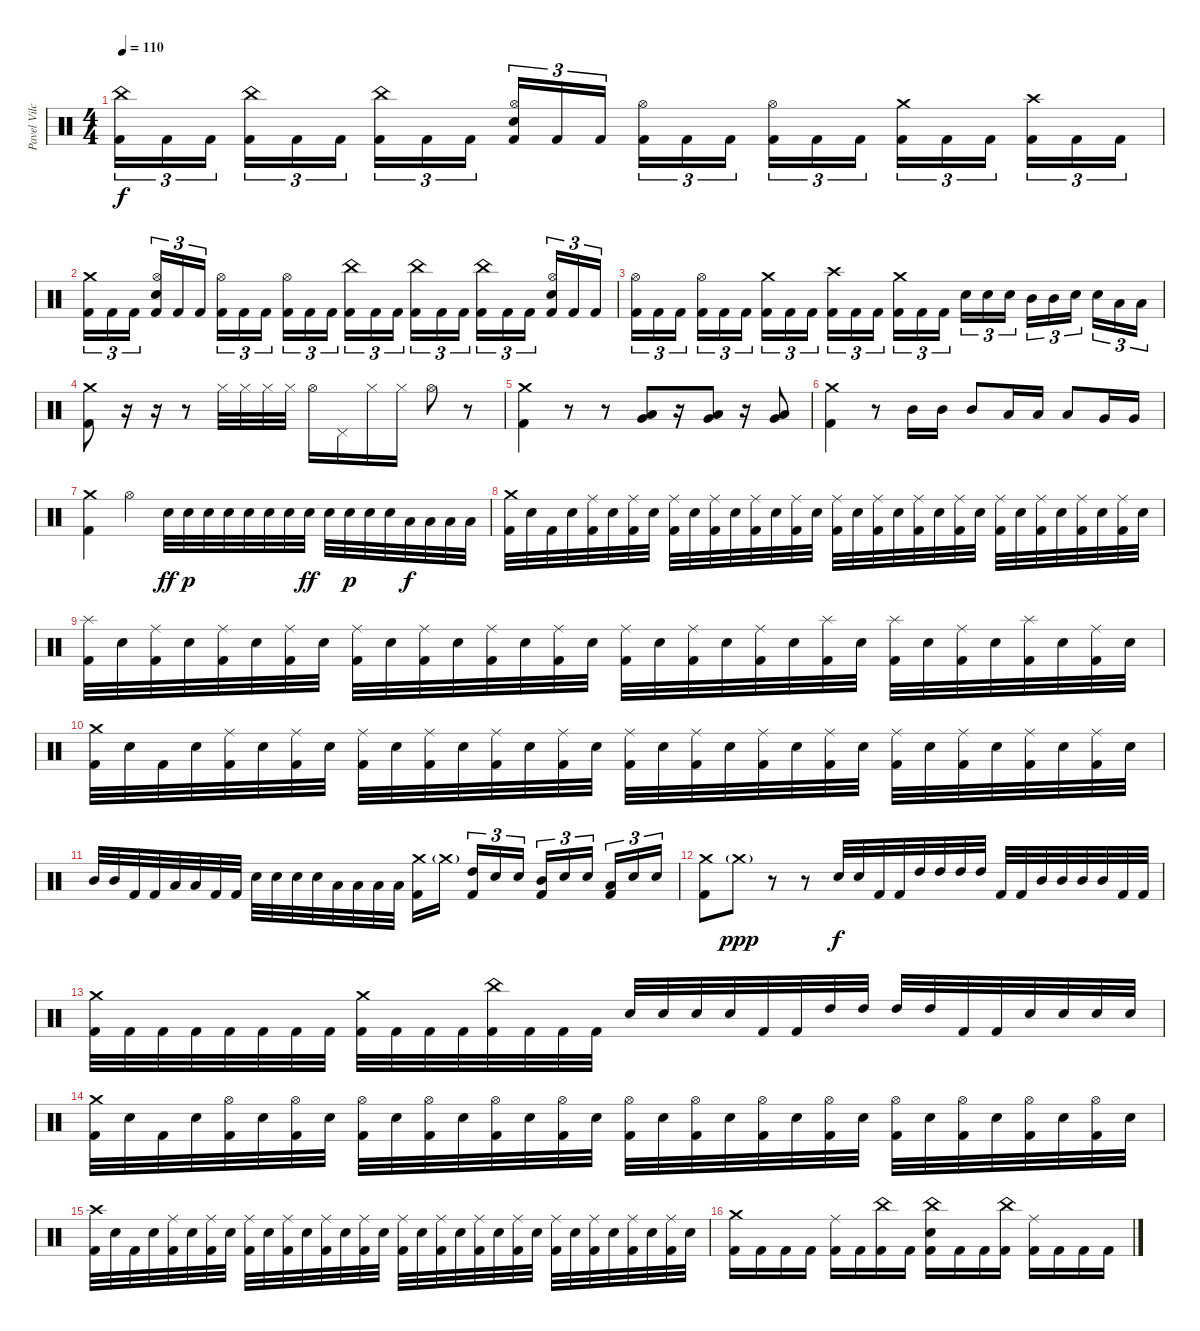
\track ("Pavel Vilchytski" "Pavel Vilc") {instrument percussion}
\staff {score}
\articulation defaults
\ts (4 4)
\tempo 110
\clef neutral
\ks c
("China (hit)" "Kick (hit) 2").16{tu (3 2) dy f} "Kick (hit) 2".16{tu (3 2)} "Kick (hit) 2".16{tu (3 2) beam splitsecondary} ("China (hit)" "Kick (hit) 2").16{tu (3 2)} "Kick (hit) 2".16{tu (3 2)} "Kick (hit) 2".16{tu (3 2)} ("China (hit)" "Kick (hit) 2").16{tu (3 2)} "Kick (hit) 2".16{tu (3 2)} "Kick (hit) 2".16{tu (3 2) beam splitsecondary} ("Hi-Hat (open)" "Electric Snare (hit)" "Kick (hit) 2").16{tu (3 2)} "Kick (hit) 2".16{tu (3 2)} "Kick (hit) 2".16{tu (3 2)} ("Hi-Hat (open)" "Kick (hit) 2").16{tu (3 2)} "Kick (hit) 2".16{tu (3 2)} "Kick (hit) 2".16{tu (3 2) beam splitsecondary} ("Hi-Hat (open)" "Kick (hit) 2").16{tu (3 2)} "Kick (hit) 2".16{tu (3 2)} "Kick (hit) 2".16{tu (3 2)} ("Crash medium (hit)" "Kick (hit) 2").16{tu (3 2)} "Kick (hit) 2".16{tu (3 2)} "Kick (hit) 2".16{tu (3 2) beam splitsecondary} ("Crash high (hit)" "Kick (hit) 2").16{tu (3 2)} "Kick (hit) 2".16{tu (3 2)} "Kick (hit) 2".16{tu (3 2)} |
("Crash medium (hit)" "Kick (hit) 2").16{tu (3 2)} "Kick (hit) 2".16{tu (3 2)} "Kick (hit) 2".16{tu (3 2) beam splitsecondary} ("Hi-Hat (open)" "Electric Snare (hit)" "Kick (hit) 2").16{tu (3 2)} "Kick (hit) 2".16{tu (3 2)} "Kick (hit) 2".16{tu (3 2)} ("Hi-Hat (open)" "Kick (hit) 2").16{tu (3 2)} "Kick (hit) 2".16{tu (3 2)} "Kick (hit) 2".16{tu (3 2) beam splitsecondary} ("Hi-Hat (open)" "Kick (hit) 2").16{tu (3 2)} "Kick (hit) 2".16{tu (3 2)} "Kick (hit) 2".16{tu (3 2)} ("China (hit)" "Kick (hit) 2").16{tu (3 2)} "Kick (hit) 2".16{tu (3 2)} "Kick (hit) 2".16{tu (3 2) beam splitsecondary} ("China (hit)" "Kick (hit) 2").16{tu (3 2)} "Kick (hit) 2".16{tu (3 2)} "Kick (hit) 2".16{tu (3 2)} ("China (hit)" "Kick (hit) 2").16{tu (3 2)} "Kick (hit) 2".16{tu (3 2)} "Kick (hit) 2".16{tu (3 2) beam splitsecondary} ("Hi-Hat (open)" "Electric Snare (hit)" "Kick (hit) 2").16{tu (3 2)} "Kick (hit) 2".16{tu (3 2)} "Kick (hit) 2".16{tu (3 2)} |
("Hi-Hat (open)" "Kick (hit) 2").16{tu (3 2)} "Kick (hit) 2".16{tu (3 2)} "Kick (hit) 2".16{tu (3 2) beam splitsecondary} ("Hi-Hat (open)" "Kick (hit) 2").16{tu (3 2)} "Kick (hit) 2".16{tu (3 2)} "Kick (hit) 2".16{tu (3 2)} ("Crash medium (hit)" "Kick (hit) 2").16{tu (3 2)} "Kick (hit) 2".16{tu (3 2)} "Kick (hit) 2".16{tu (3 2) beam splitsecondary} ("Crash high (hit)" "Kick (hit) 2").16{tu (3 2)} "Kick (hit) 2".16{tu (3 2)} "Kick (hit) 2".16{tu (3 2)} ("Crash medium (hit)" "Kick (hit) 2").16{tu (3 2)} "Kick (hit) 2".16{tu (3 2)} "Kick (hit) 2".16{tu (3 2) beam splitsecondary} "Electric Snare (hit)".16{tu (3 2)} "Electric Snare (hit)".16{tu (3 2)} "Electric Snare (hit)".16{tu (3 2)} "Mid Tom (hit)".16{tu (3 2)} "Mid Tom (hit)".16{tu (3 2)} "Electric Snare (hit)".16{tu (3 2) beam splitsecondary} "Electric Snare (hit)".16{tu (3 2)} "Low Tom (hit)".16{tu (3 2)} "Low Tom (hit)".16{tu (3 2)} |
("Crash medium (hit)" "Kick (hit) 2").8 r.16 r.16 r.8 "Hi-Hat (closed)".32 "Hi-Hat (closed)".32 "Hi-Hat (closed)".32 "Hi-Hat (closed)".32 "Hi-Hat (open)".16 "Pedal Hi-Hat (hit)".16 "Hi-Hat (closed)".16 "Hi-Hat (closed)".16 "Hi-Hat (open)".8 r.8 |
("Crash medium (hit)" "Kick (hit) 2").4 r.8 r.8 ("Low Tom (hit)" "Very Low Tom (hit)").8 r.16 ("Low Tom (hit)" "Very Low Tom (hit)").8 r.16 ("Low Tom (hit)" "Very Low Tom (hit)").8 |
("Crash medium (hit)" "Kick (hit) 2").4 r.8 "Mid Tom (hit)".16 "Mid Tom (hit)".16 "Mid Tom (hit)".8 "Low Tom (hit)".16 "Low Tom (hit)".16 "Low Tom (hit)".8 "Very Low Tom (hit)".16 "Very Low Tom (hit)".16 |
("Crash medium (hit)" "Kick (hit) 2").4 "Hi-Hat (open)".4 "Electric Snare (hit)".32{dy ff} "Electric Snare (hit)".32{dy p} "Electric Snare (hit)".32 "Electric Snare (hit)".32 "Electric Snare (hit)".32 "Electric Snare (hit)".32 "Electric Snare (hit)".32 "Electric Snare (hit)".32{dy ff} "Electric Snare (hit)".32 "Electric Snare (hit)".32{dy p} "Electric Snare (hit)".32 "Electric Snare (hit)".32 "Low Tom (hit)".32{dy f} "Low Tom (hit)".32 "Low Tom (hit)".32 "Low Tom (hit)".32 |
("Crash medium (hit)" "Kick (hit) 2").32 "Electric Snare (hit)".32 "Kick (hit) 2".32 "Electric Snare (hit)".32 ("Ride (middle)" "Kick (hit) 2").32 "Electric Snare (hit)".32 ("Ride (middle)" "Kick (hit) 2").32 "Electric Snare (hit)".32 ("Ride (middle)" "Kick (hit) 2").32 "Electric Snare (hit)".32 ("Ride (middle)" "Kick (hit) 2").32 "Electric Snare (hit)".32 ("Ride (middle)" "Kick (hit) 2").32 "Electric Snare (hit)".32 ("Ride (middle)" "Kick (hit) 2").32 "Electric Snare (hit)".32 ("Ride (middle)" "Kick (hit) 2").32 "Electric Snare (hit)".32 ("Ride (middle)" "Kick (hit) 2").32 "Electric Snare (hit)".32 ("Ride (middle)" "Kick (hit) 2").32 "Electric Snare (hit)".32 ("Ride (middle)" "Kick (hit) 2").32 "Electric Snare (hit)".32 ("Ride (middle)" "Kick (hit) 2").32 "Electric Snare (hit)".32 ("Ride (middle)" "Kick (hit) 2").32 "Electric Snare (hit)".32 ("Ride (middle)" "Kick (hit) 2").32 "Electric Snare (hit)".32 ("Ride (middle)" "Kick (hit) 2").32 "Electric Snare (hit)".32 |
("Splash (hit)" "Kick (hit) 2").32 "Electric Snare (hit)".32 ("Ride (middle)" "Kick (hit) 2").32 "Electric Snare (hit)".32 ("Ride (middle)" "Kick (hit) 2").32 "Electric Snare (hit)".32 ("Ride (middle)" "Kick (hit) 2").32 "Electric Snare (hit)".32 ("Ride (middle)" "Kick (hit) 2").32 "Electric Snare (hit)".32 ("Ride (middle)" "Kick (hit) 2").32 "Electric Snare (hit)".32 ("Ride (middle)" "Kick (hit) 2").32 "Electric Snare (hit)".32 ("Ride (middle)" "Kick (hit) 2").32 "Electric Snare (hit)".32 ("Ride (middle)" "Kick (hit) 2").32 "Electric Snare (hit)".32 ("Ride (middle)" "Kick (hit) 2").32 "Electric Snare (hit)".32 ("Ride (middle)" "Kick (hit) 2").32 "Electric Snare (hit)".32 ("Splash (hit)" "Kick (hit) 2").32 "Electric Snare (hit)".32 ("Splash (hit)" "Kick (hit) 2").32 "Electric Snare (hit)".32 ("Ride (middle)" "Kick (hit) 2").32 "Electric Snare (hit)".32 ("Splash (hit)" "Kick (hit) 2").32 "Electric Snare (hit)".32 ("Ride (middle)" "Kick (hit) 2").32 "Electric Snare (hit)".32 |
("Crash medium (hit)" "Kick (hit) 2").32 "Electric Snare (hit)".32 "Kick (hit) 2".32 "Electric Snare (hit)".32 ("Ride (middle)" "Kick (hit) 2").32 "Electric Snare (hit)".32 ("Ride (middle)" "Kick (hit) 2").32 "Electric Snare (hit)".32 ("Ride (middle)" "Kick (hit) 2").32 "Electric Snare (hit)".32 ("Ride (middle)" "Kick (hit) 2").32 "Electric Snare (hit)".32 ("Ride (middle)" "Kick (hit) 2").32 "Electric Snare (hit)".32 ("Ride (middle)" "Kick (hit) 2").32 "Electric Snare (hit)".32 ("Ride (middle)" "Kick (hit) 2").32 "Electric Snare (hit)".32 ("Ride (middle)" "Kick (hit) 2").32 "Electric Snare (hit)".32 ("Ride (middle)" "Kick (hit) 2").32 "Electric Snare (hit)".32 ("Ride (middle)" "Kick (hit) 2").32 "Electric Snare (hit)".32 ("Ride (middle)" "Kick (hit) 2").32 "Electric Snare (hit)".32 ("Ride (middle)" "Kick (hit) 2").32 "Electric Snare (hit)".32 ("Ride (middle)" "Kick (hit) 2").32 "Electric Snare (hit)".32 ("Ride (middle)" "Kick (hit) 2").32 "Electric Snare (hit)".32 |
"Mid Tom (hit)".32 "Mid Tom (hit)".32 "Kick (hit) 2".32 "Kick (hit) 2".32 "Low Tom (hit)".32 "Low Tom (hit)".32 "Kick (hit) 2".32 "Kick (hit) 2".32 "Electric Snare (hit)".32 "Electric Snare (hit)".32 "Electric Snare (hit)".32 "Electric Snare (hit)".32 "Low Tom (hit)".32 "Low Tom (hit)".32 "Low Tom (hit)".32 "Low Tom (hit)".32 ("Crash medium (hit)" "Kick (hit) 2").16 "Crash medium (hit)"{g}.16{beam splitsecondary} ("High Tom (hit)" "Kick (hit) 2").16{tu (3 2)} "Electric Snare (hit)".16{tu (3 2)} "Electric Snare (hit)".16{tu (3 2)} ("Mid Tom (hit)" "Kick (hit) 2").16{tu (3 2)} "Electric Snare (hit)".16{tu (3 2)} "Electric Snare (hit)".16{tu (3 2) beam splitsecondary} ("Low Tom (hit)" "Kick (hit) 2").16{tu (3 2)} "Electric Snare (hit)".16{tu (3 2)} "Electric Snare (hit)".16{tu (3 2)} |
("Crash medium (hit)" "Kick (hit) 2").8 "Crash medium (hit)"{g}.8{dy ppp} r.8 r.8 "Electric Snare (hit)".32{dy f} "Electric Snare (hit)".32 "Kick (hit) 2".32 "Kick (hit) 2".32 "High Tom (hit)".32 "High Tom (hit)".32 "High Tom (hit)".32 "High Tom (hit)".32 "Kick (hit) 2".32 "Kick (hit) 2".32 "Mid Tom (hit)".32 "Mid Tom (hit)".32 "Mid Tom (hit)".32 "Mid Tom (hit)".32 "Kick (hit) 2".32 "Kick (hit) 2".32 |
("Crash medium (hit)" "Kick (hit) 2").32 "Kick (hit) 2".32 "Kick (hit) 2".32 "Kick (hit) 2".32 "Kick (hit) 2".32 "Kick (hit) 2".32 "Kick (hit) 2".32 "Kick (hit) 2".32 ("Crash medium (hit)" "Kick (hit) 2").32 "Kick (hit) 2".32 "Kick (hit) 2".32 "Kick (hit) 2".32 ("China (hit)" "Kick (hit) 2").32 "Kick (hit) 2".32 "Kick (hit) 2".32 "Kick (hit) 2".32 "Electric Snare (hit)".32 "Electric Snare (hit)".32 "Electric Snare (hit)".32 "Electric Snare (hit)".32 "Kick (hit) 2".32 "Kick (hit) 2".32 "High Tom (hit)".32 "High Tom (hit)".32 "High Tom (hit)".32 "High Tom (hit)".32 "Kick (hit) 2".32 "Kick (hit) 2".32 "Electric Snare (hit)".32 "Electric Snare (hit)".32 "Electric Snare (hit)".32 "Electric Snare (hit)".32 |
("Crash medium (hit)" "Kick (hit) 2").32 "Electric Snare (hit)".32 "Kick (hit) 2".32 "Electric Snare (hit)".32 ("Hi-Hat (open)" "Kick (hit) 2").32 "Electric Snare (hit)".32 ("Hi-Hat (open)" "Kick (hit) 2").32 "Electric Snare (hit)".32 ("Hi-Hat (open)" "Kick (hit) 2").32 "Electric Snare (hit)".32 ("Hi-Hat (open)" "Kick (hit) 2").32 "Electric Snare (hit)".32 ("Hi-Hat (open)" "Kick (hit) 2").32 "Electric Snare (hit)".32 ("Hi-Hat (open)" "Kick (hit) 2").32 "Electric Snare (hit)".32 ("Hi-Hat (open)" "Kick (hit) 2").32 "Electric Snare (hit)".32 ("Hi-Hat (open)" "Kick (hit) 2").32 "Electric Snare (hit)".32 ("Hi-Hat (open)" "Kick (hit) 2").32 "Electric Snare (hit)".32 ("Hi-Hat (open)" "Kick (hit) 2").32 "Electric Snare (hit)".32 ("Hi-Hat (open)" "Kick (hit) 2").32 "Electric Snare (hit)".32 ("Hi-Hat (open)" "Kick (hit) 2").32 "Electric Snare (hit)".32 ("Hi-Hat (open)" "Kick (hit) 2").32 "Electric Snare (hit)".32 ("Hi-Hat (open)" "Kick (hit) 2").32 "Electric Snare (hit)".32 |
("Crash high (hit)" "Kick (hit) 2").32 "Electric Snare (hit)".32 "Kick (hit) 2".32 "Electric Snare (hit)".32 ("Ride (middle)" "Kick (hit) 2").32 "Electric Snare (hit)".32 ("Ride (middle)" "Kick (hit) 2").32 "Electric Snare (hit)".32 ("Ride (middle)" "Kick (hit) 2").32 "Electric Snare (hit)".32 ("Ride (middle)" "Kick (hit) 2").32 "Electric Snare (hit)".32 ("Ride (middle)" "Kick (hit) 2").32 "Electric Snare (hit)".32 ("Ride (middle)" "Kick (hit) 2").32 "Electric Snare (hit)".32 ("Ride (middle)" "Kick (hit) 2").32 "Electric Snare (hit)".32 ("Ride (middle)" "Kick (hit) 2").32 "Electric Snare (hit)".32 ("Ride (middle)" "Kick (hit) 2").32 "Electric Snare (hit)".32 ("Ride (middle)" "Kick (hit) 2").32 "Electric Snare (hit)".32 ("Ride (middle)" "Kick (hit) 2").32 "Electric Snare (hit)".32 ("Ride (middle)" "Kick (hit) 2").32 "Electric Snare (hit)".32 ("Ride (middle)" "Kick (hit) 2").32 "Electric Snare (hit)".32 ("Ride (middle)" "Kick (hit) 2").32 "Electric Snare (hit)".32 |
("Crash medium (hit)" "Kick (hit) 2").16 "Kick (hit) 2".16 "Kick (hit) 2".16 "Kick (hit) 2".16 ("Ride (middle)" "Kick (hit) 2").16 "Kick (hit) 2".16 ("China (hit)" "Kick (hit) 2").16 "Kick (hit) 2".16 ("China (hit)" "Electric Snare (hit)" "Kick (hit) 2").16 "Kick (hit) 2".16 "Kick (hit) 2".16 ("China (hit)" "Kick (hit) 2").16 ("Ride (middle)" "Kick (hit) 2").16 "Kick (hit) 2".16 "Kick (hit) 2".16 "Kick (hit) 2".16
